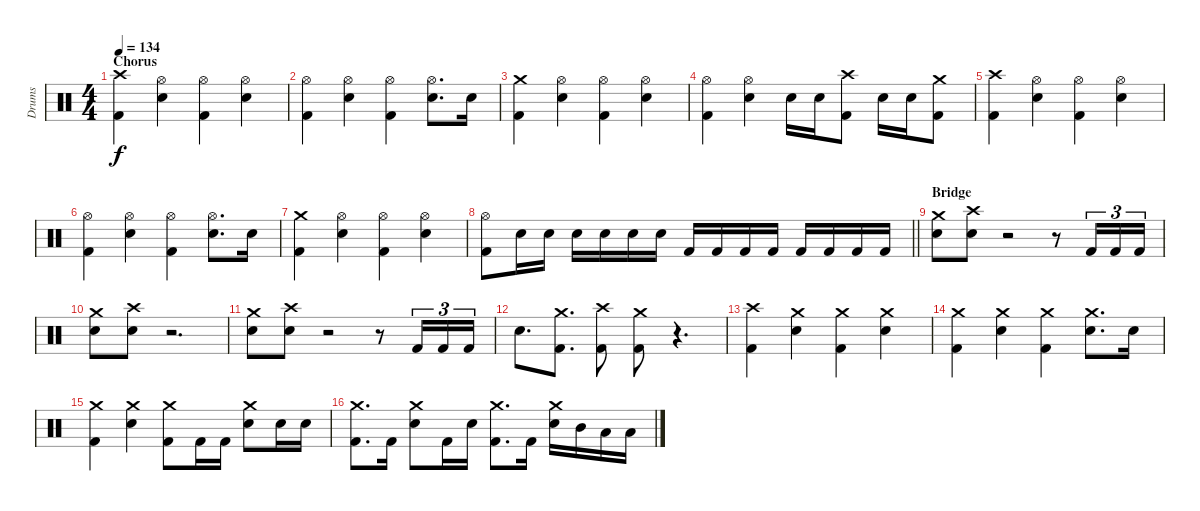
\track ("Drums" "Drums") {instrument percussion}
\staff {score}
\articulation defaults
\ts (4 4)
\section ("" "Chorus")
\tempo 134
\clef neutral
\ks c
("Crash high (hit)" "Kick (hit) 2").4{dy f} ("Hi-Hat (open)" "Snare (hit) 2").4 ("Hi-Hat (open)" "Kick (hit) 2").4 ("Hi-Hat (open)" "Snare (hit) 2").4 |
("Hi-Hat (open)" "Kick (hit) 2").4 ("Hi-Hat (open)" "Snare (hit) 2").4 ("Hi-Hat (open)" "Kick (hit) 2").4 ("Hi-Hat (open)" "Snare (hit) 2").8{d} "Snare (hit) 2".16 |
("Crash medium (hit)" "Kick (hit) 2").4 ("Hi-Hat (open)" "Snare (hit) 2").4 ("Hi-Hat (open)" "Kick (hit) 2").4 ("Hi-Hat (open)" "Snare (hit) 2").4 |
("Hi-Hat (open)" "Kick (hit) 2").4 ("Hi-Hat (open)" "Snare (hit) 2").4 "Snare (hit) 2".16 "Snare (hit) 2".16 ("Crash high (hit)" "Kick (hit) 2").8 "Snare (hit) 2".16 "Snare (hit) 2".16 ("Crash medium (hit)" "Kick (hit) 2").8 |
("Crash high (hit)" "Kick (hit) 2").4 ("Hi-Hat (open)" "Snare (hit) 2").4 ("Hi-Hat (open)" "Kick (hit) 2").4 ("Hi-Hat (open)" "Snare (hit) 2").4 |
("Hi-Hat (open)" "Kick (hit) 2").4 ("Hi-Hat (open)" "Snare (hit) 2").4 ("Hi-Hat (open)" "Kick (hit) 2").4 ("Hi-Hat (open)" "Snare (hit) 2").8{d} "Snare (hit) 2".16 |
("Crash medium (hit)" "Kick (hit) 2").4 ("Hi-Hat (open)" "Snare (hit) 2").4 ("Hi-Hat (open)" "Kick (hit) 2").4 ("Hi-Hat (open)" "Snare (hit) 2").4 |
\barLineRight lightlight
("Hi-Hat (open)" "Kick (hit) 2").8 "Snare (hit) 2".16 "Snare (hit) 2".16 "Snare (hit) 2".16 "Snare (hit) 2".16 "Snare (hit) 2".16 "Snare (hit) 2".16 "Kick (hit) 2".16 "Kick (hit) 2".16 "Kick (hit) 2".16 "Kick (hit) 2".16 "Kick (hit) 2".16 "Kick (hit) 2".16 "Kick (hit) 2".16 "Kick (hit) 2".16 |
\section ("" "Bridge")
("Crash medium (hit)" "Snare (hit) 2").8 ("Crash high (hit)" "Snare (hit) 2").8 r.2 r.8 "Kick (hit) 2".16{tu (3 2)} "Kick (hit) 2".16{tu (3 2)} "Kick (hit) 2".16{tu (3 2)} |
("Crash medium (hit)" "Snare (hit) 2").8 ("Crash high (hit)" "Snare (hit) 2").8 r.2{d} |
("Crash medium (hit)" "Snare (hit) 2").8 ("Crash high (hit)" "Snare (hit) 2").8 r.2 r.8 "Kick (hit) 2".16{tu (3 2)} "Kick (hit) 2".16{tu (3 2)} "Kick (hit) 2".16{tu (3 2)} |
"Snare (hit) 2".8{d} ("Crash medium (hit)" "Kick (hit) 2").8{d} ("Crash high (hit)" "Kick (hit) 2").8 ("Crash medium (hit)" "Kick (hit) 2").8 r.4{d} |
("Crash high (hit)" "Kick (hit) 2").4 ("Crash medium (hit)" "Snare (hit) 2").4 ("Crash medium (hit)" "Kick (hit) 2").4 ("Crash medium (hit)" "Snare (hit) 2").4 |
("Crash medium (hit)" "Kick (hit) 2").4 ("Crash medium (hit)" "Snare (hit) 2").4 ("Crash medium (hit)" "Kick (hit) 2").4 ("Crash medium (hit)" "Snare (hit) 2").8{d} "Snare (hit) 2".16 |
("Crash medium (hit)" "Kick (hit) 2").4 ("Crash medium (hit)" "Snare (hit) 2").4 ("Crash medium (hit)" "Kick (hit) 2").8 "Kick (hit) 2".16 "Kick (hit) 2".16 ("Crash medium (hit)" "Snare (hit) 2").8 "Snare (hit) 2".16 "Snare (hit) 2".16 |
("Crash medium (hit)" "Kick (hit) 2").8{d} "Kick (hit) 2".16 ("Crash medium (hit)" "Snare (hit) 2").8 "Kick (hit) 2".16 "Snare (hit) 2".16 ("Crash medium (hit)" "Kick (hit) 2").8{d} "Kick (hit) 2".16 ("Crash medium (hit)" "Snare (hit) 2").16 "Mid Tom (hit)".16 "Low Tom (hit)".16 "Low Tom (hit)".16
